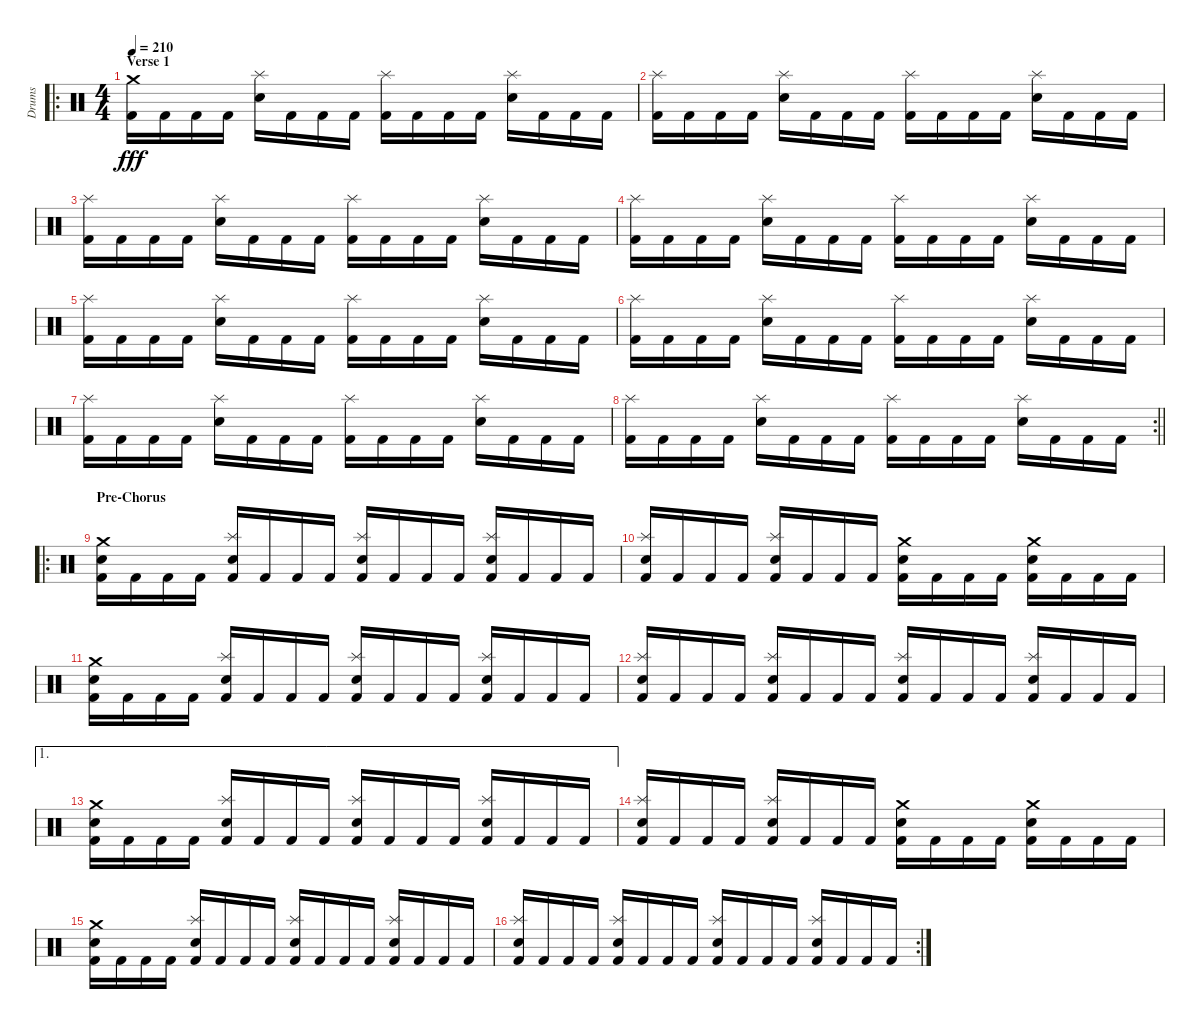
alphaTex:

\track ("Drums" "Drums") {instrument percussion}
\staff {score}
\articulation defaults
\ro
\ts (4 4)
\section ("" "Verse 1")
\tempo 210
\clef neutral
\ks c
("Crash medium (hit)" "Kick (hit) 2").16{dy fff} "Kick (hit) 2".16 "Kick (hit) 2".16 "Kick (hit) 2".16 ("Splash (hit)" "Electric Snare (hit)").16 "Kick (hit) 2".16 "Kick (hit) 2".16 "Kick (hit) 2".16 ("Splash (hit)" "Kick (hit) 2").16 "Kick (hit) 2".16 "Kick (hit) 2".16 "Kick (hit) 2".16 ("Splash (hit)" "Electric Snare (hit)").16 "Kick (hit) 2".16 "Kick (hit) 2".16 "Kick (hit) 2".16 |
("Splash (hit)" "Kick (hit) 2").16 "Kick (hit) 2".16 "Kick (hit) 2".16 "Kick (hit) 2".16 ("Splash (hit)" "Electric Snare (hit)").16 "Kick (hit) 2".16 "Kick (hit) 2".16 "Kick (hit) 2".16 ("Splash (hit)" "Kick (hit) 2").16 "Kick (hit) 2".16 "Kick (hit) 2".16 "Kick (hit) 2".16 ("Splash (hit)" "Electric Snare (hit)").16 "Kick (hit) 2".16 "Kick (hit) 2".16 "Kick (hit) 2".16 |
("Splash (hit)" "Kick (hit) 2").16 "Kick (hit) 2".16 "Kick (hit) 2".16 "Kick (hit) 2".16 ("Splash (hit)" "Electric Snare (hit)").16 "Kick (hit) 2".16 "Kick (hit) 2".16 "Kick (hit) 2".16 ("Splash (hit)" "Kick (hit) 2").16 "Kick (hit) 2".16 "Kick (hit) 2".16 "Kick (hit) 2".16 ("Splash (hit)" "Electric Snare (hit)").16 "Kick (hit) 2".16 "Kick (hit) 2".16 "Kick (hit) 2".16 |
("Splash (hit)" "Kick (hit) 2").16 "Kick (hit) 2".16 "Kick (hit) 2".16 "Kick (hit) 2".16 ("Splash (hit)" "Electric Snare (hit)").16 "Kick (hit) 2".16 "Kick (hit) 2".16 "Kick (hit) 2".16 ("Splash (hit)" "Kick (hit) 2").16 "Kick (hit) 2".16 "Kick (hit) 2".16 "Kick (hit) 2".16 ("Splash (hit)" "Electric Snare (hit)").16 "Kick (hit) 2".16 "Kick (hit) 2".16 "Kick (hit) 2".16 |
("Splash (hit)" "Kick (hit) 2").16 "Kick (hit) 2".16 "Kick (hit) 2".16 "Kick (hit) 2".16 ("Splash (hit)" "Electric Snare (hit)").16 "Kick (hit) 2".16 "Kick (hit) 2".16 "Kick (hit) 2".16 ("Splash (hit)" "Kick (hit) 2").16 "Kick (hit) 2".16 "Kick (hit) 2".16 "Kick (hit) 2".16 ("Splash (hit)" "Electric Snare (hit)").16 "Kick (hit) 2".16 "Kick (hit) 2".16 "Kick (hit) 2".16 |
("Splash (hit)" "Kick (hit) 2").16 "Kick (hit) 2".16 "Kick (hit) 2".16 "Kick (hit) 2".16 ("Splash (hit)" "Electric Snare (hit)").16 "Kick (hit) 2".16 "Kick (hit) 2".16 "Kick (hit) 2".16 ("Splash (hit)" "Kick (hit) 2").16 "Kick (hit) 2".16 "Kick (hit) 2".16 "Kick (hit) 2".16 ("Splash (hit)" "Electric Snare (hit)").16 "Kick (hit) 2".16 "Kick (hit) 2".16 "Kick (hit) 2".16 |
("Splash (hit)" "Kick (hit) 2").16 "Kick (hit) 2".16 "Kick (hit) 2".16 "Kick (hit) 2".16 ("Splash (hit)" "Electric Snare (hit)").16 "Kick (hit) 2".16 "Kick (hit) 2".16 "Kick (hit) 2".16 ("Splash (hit)" "Kick (hit) 2").16 "Kick (hit) 2".16 "Kick (hit) 2".16 "Kick (hit) 2".16 ("Splash (hit)" "Electric Snare (hit)").16 "Kick (hit) 2".16 "Kick (hit) 2".16 "Kick (hit) 2".16 |
\rc 2
\barLineRight lightlight
("Splash (hit)" "Kick (hit) 2").16 "Kick (hit) 2".16 "Kick (hit) 2".16 "Kick (hit) 2".16 ("Splash (hit)" "Electric Snare (hit)").16 "Kick (hit) 2".16 "Kick (hit) 2".16 "Kick (hit) 2".16 ("Splash (hit)" "Kick (hit) 2").16 "Kick (hit) 2".16 "Kick (hit) 2".16 "Kick (hit) 2".16 ("Splash (hit)" "Electric Snare (hit)").16 "Kick (hit) 2".16 "Kick (hit) 2".16 "Kick (hit) 2".16 |
\ro
\section ("" "Pre-Chorus")
("Crash medium (hit)" "Electric Snare (hit)" "Kick (hit) 2").16 "Kick (hit) 2".16 "Kick (hit) 2".16 "Kick (hit) 2".16 ("Splash (hit)" "Electric Snare (hit)" "Kick (hit) 2").16 "Kick (hit) 2".16 "Kick (hit) 2".16 "Kick (hit) 2".16 ("Splash (hit)" "Electric Snare (hit)" "Kick (hit) 2").16 "Kick (hit) 2".16 "Kick (hit) 2".16 "Kick (hit) 2".16 ("Splash (hit)" "Electric Snare (hit)" "Kick (hit) 2").16 "Kick (hit) 2".16 "Kick (hit) 2".16 "Kick (hit) 2".16 |
("Splash (hit)" "Electric Snare (hit)" "Kick (hit) 2").16 "Kick (hit) 2".16 "Kick (hit) 2".16 "Kick (hit) 2".16 ("Splash (hit)" "Electric Snare (hit)" "Kick (hit) 2").16 "Kick (hit) 2".16 "Kick (hit) 2".16 "Kick (hit) 2".16 ("Crash medium (hit)" "Electric Snare (hit)" "Kick (hit) 2").16 "Kick (hit) 2".16 "Kick (hit) 2".16 "Kick (hit) 2".16 ("Crash medium (hit)" "Electric Snare (hit)" "Kick (hit) 2").16 "Kick (hit) 2".16 "Kick (hit) 2".16 "Kick (hit) 2".16 |
("Crash medium (hit)" "Electric Snare (hit)" "Kick (hit) 2").16 "Kick (hit) 2".16 "Kick (hit) 2".16 "Kick (hit) 2".16 ("Splash (hit)" "Electric Snare (hit)" "Kick (hit) 2").16 "Kick (hit) 2".16 "Kick (hit) 2".16 "Kick (hit) 2".16 ("Splash (hit)" "Electric Snare (hit)" "Kick (hit) 2").16 "Kick (hit) 2".16 "Kick (hit) 2".16 "Kick (hit) 2".16 ("Splash (hit)" "Electric Snare (hit)" "Kick (hit) 2").16 "Kick (hit) 2".16 "Kick (hit) 2".16 "Kick (hit) 2".16 |
("Splash (hit)" "Electric Snare (hit)" "Kick (hit) 2").16 "Kick (hit) 2".16 "Kick (hit) 2".16 "Kick (hit) 2".16 ("Splash (hit)" "Electric Snare (hit)" "Kick (hit) 2").16 "Kick (hit) 2".16 "Kick (hit) 2".16 "Kick (hit) 2".16 ("Splash (hit)" "Electric Snare (hit)" "Kick (hit) 2").16 "Kick (hit) 2".16 "Kick (hit) 2".16 "Kick (hit) 2".16 ("Splash (hit)" "Electric Snare (hit)" "Kick (hit) 2").16 "Kick (hit) 2".16 "Kick (hit) 2".16 "Kick (hit) 2".16 |
\ae 1
("Crash medium (hit)" "Electric Snare (hit)" "Kick (hit) 2").16 "Kick (hit) 2".16 "Kick (hit) 2".16 "Kick (hit) 2".16 ("Splash (hit)" "Electric Snare (hit)" "Kick (hit) 2").16 "Kick (hit) 2".16 "Kick (hit) 2".16 "Kick (hit) 2".16 ("Splash (hit)" "Electric Snare (hit)" "Kick (hit) 2").16 "Kick (hit) 2".16 "Kick (hit) 2".16 "Kick (hit) 2".16 ("Splash (hit)" "Electric Snare (hit)" "Kick (hit) 2").16 "Kick (hit) 2".16 "Kick (hit) 2".16 "Kick (hit) 2".16 |
("Splash (hit)" "Electric Snare (hit)" "Kick (hit) 2").16 "Kick (hit) 2".16 "Kick (hit) 2".16 "Kick (hit) 2".16 ("Splash (hit)" "Electric Snare (hit)" "Kick (hit) 2").16 "Kick (hit) 2".16 "Kick (hit) 2".16 "Kick (hit) 2".16 ("Crash medium (hit)" "Electric Snare (hit)" "Kick (hit) 2").16 "Kick (hit) 2".16 "Kick (hit) 2".16 "Kick (hit) 2".16 ("Crash medium (hit)" "Electric Snare (hit)" "Kick (hit) 2").16 "Kick (hit) 2".16 "Kick (hit) 2".16 "Kick (hit) 2".16 |
("Crash medium (hit)" "Electric Snare (hit)" "Kick (hit) 2").16 "Kick (hit) 2".16 "Kick (hit) 2".16 "Kick (hit) 2".16 ("Splash (hit)" "Electric Snare (hit)" "Kick (hit) 2").16 "Kick (hit) 2".16 "Kick (hit) 2".16 "Kick (hit) 2".16 ("Splash (hit)" "Electric Snare (hit)" "Kick (hit) 2").16 "Kick (hit) 2".16 "Kick (hit) 2".16 "Kick (hit) 2".16 ("Splash (hit)" "Electric Snare (hit)" "Kick (hit) 2").16 "Kick (hit) 2".16 "Kick (hit) 2".16 "Kick (hit) 2".16 |
\rc 2
("Splash (hit)" "Electric Snare (hit)" "Kick (hit) 2").16 "Kick (hit) 2".16 "Kick (hit) 2".16 "Kick (hit) 2".16 ("Splash (hit)" "Electric Snare (hit)" "Kick (hit) 2").16 "Kick (hit) 2".16 "Kick (hit) 2".16 "Kick (hit) 2".16 ("Splash (hit)" "Electric Snare (hit)" "Kick (hit) 2").16 "Kick (hit) 2".16 "Kick (hit) 2".16 "Kick (hit) 2".16 ("Splash (hit)" "Electric Snare (hit)" "Kick (hit) 2").16 "Kick (hit) 2".16 "Kick (hit) 2".16 "Kick (hit) 2".16
